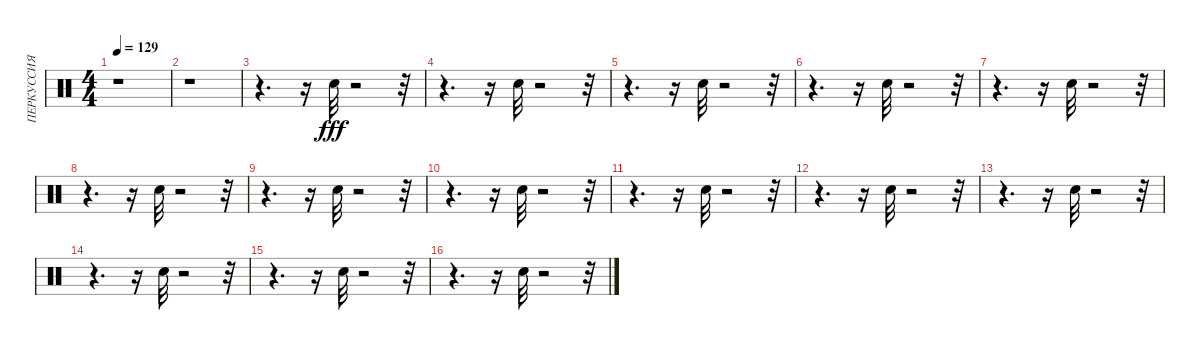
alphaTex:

\track ("ПЕРКУССИЯ" "ПЕРКУССИЯ") {instrument percussion}
\staff {score}
\articulation defaults
\ts (4 4)
\tempo 129
\clef neutral
\ks c
r.1{dy fff} |
r.1 |
r.4{d} r.16 "Snare (hit) 2".32 r.2 r.32 |
r.4{d} r.16 "Snare (hit) 2".32 r.2 r.32 |
r.4{d} r.16 "Snare (hit) 2".32 r.2 r.32 |
r.4{d} r.16 "Snare (hit) 2".32 r.2 r.32 |
r.4{d} r.16 "Snare (hit) 2".32 r.2 r.32 |
r.4{d} r.16 "Snare (hit) 2".32 r.2 r.32 |
r.4{d} r.16 "Snare (hit) 2".32 r.2 r.32 |
r.4{d} r.16 "Snare (hit) 2".32 r.2 r.32 |
r.4{d} r.16 "Snare (hit) 2".32 r.2 r.32 |
r.4{d} r.16 "Snare (hit) 2".32 r.2 r.32 |
r.4{d} r.16 "Snare (hit) 2".32 r.2 r.32 |
r.4{d} r.16 "Snare (hit) 2".32 r.2 r.32 |
r.4{d} r.16 "Snare (hit) 2".32 r.2 r.32 |
r.4{d} r.16 "Snare (hit) 2".32 r.2 r.32
